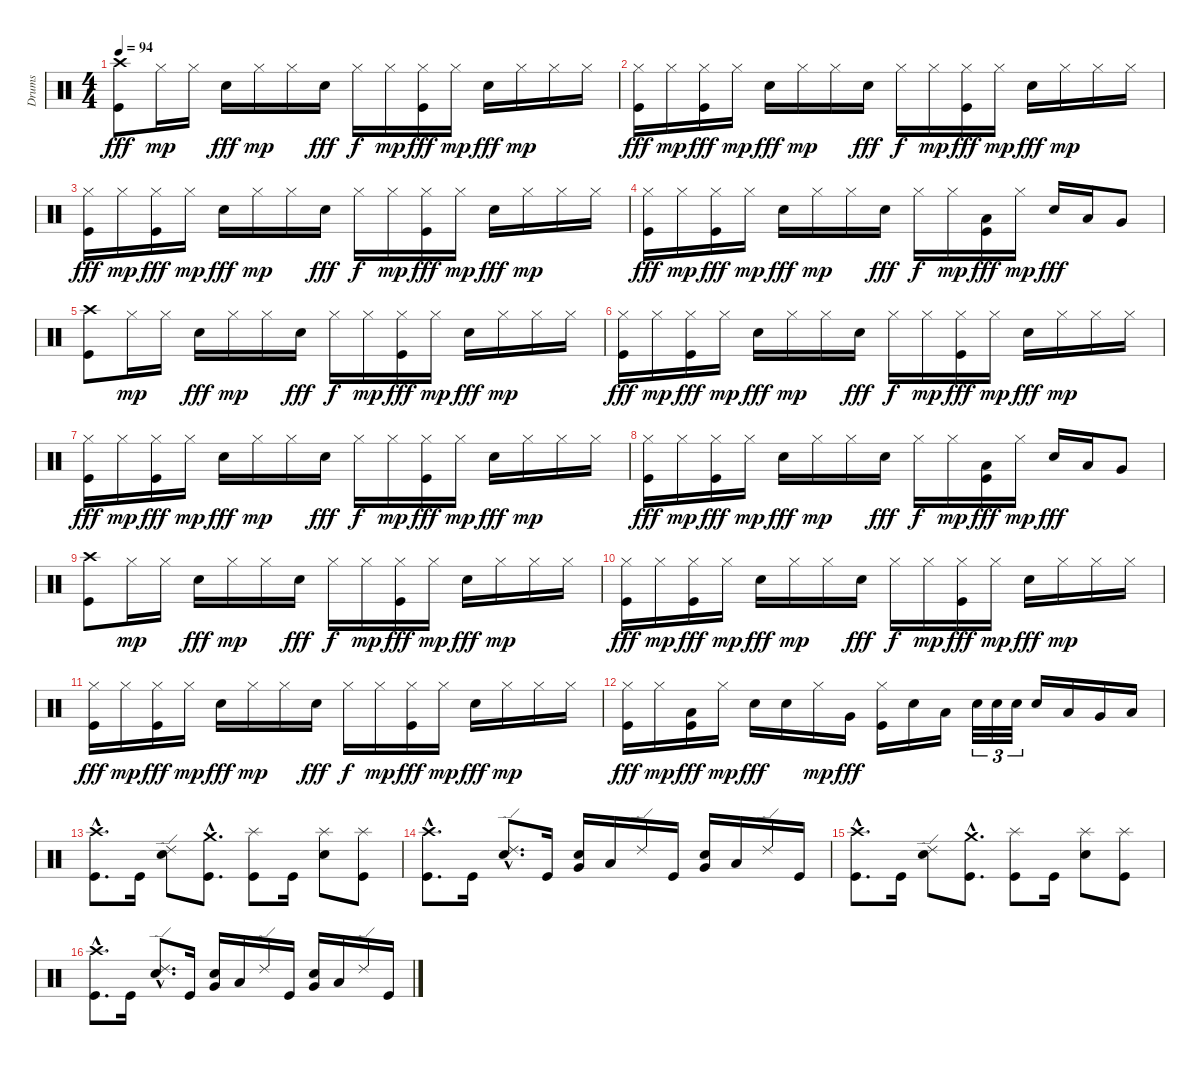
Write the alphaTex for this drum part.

\track ("Drums" "Drums") {instrument percussion}
\staff {score}
\articulation defaults
\ts (4 4)
\tempo 94
\clef neutral
\ks c
("Crash high (hit)" "Kick (hit)").8{dy fff} "Hi-Hat (closed)".16{dy mp} "Hi-Hat (closed)".16 "Snare (hit) 2".16{dy fff} "Hi-Hat (closed)".16{dy mp} "Hi-Hat (closed)".16 "Snare (hit) 2".16{dy fff} "Hi-Hat (closed)".16{dy f} "Hi-Hat (closed)".16{dy mp} ("Hi-Hat (closed)" "Kick (hit)").16{dy fff} "Hi-Hat (closed)".16{dy mp} "Snare (hit) 2".16{dy fff} "Hi-Hat (closed)".16{dy mp} "Hi-Hat (closed)".16 "Hi-Hat (closed)".16 |
("Hi-Hat (closed)" "Kick (hit)").16{dy fff} "Hi-Hat (closed)".16{dy mp} ("Hi-Hat (closed)" "Kick (hit)").16{dy fff} "Hi-Hat (closed)".16{dy mp} "Snare (hit) 2".16{dy fff} "Hi-Hat (closed)".16{dy mp} "Hi-Hat (closed)".16 "Snare (hit) 2".16{dy fff} "Hi-Hat (closed)".16{dy f} "Hi-Hat (closed)".16{dy mp} ("Hi-Hat (closed)" "Kick (hit)").16{dy fff} "Hi-Hat (closed)".16{dy mp} "Snare (hit) 2".16{dy fff} "Hi-Hat (closed)".16{dy mp} "Hi-Hat (closed)".16 "Hi-Hat (closed)".16 |
("Hi-Hat (closed)" "Kick (hit)").16{dy fff} "Hi-Hat (closed)".16{dy mp} ("Hi-Hat (closed)" "Kick (hit)").16{dy fff} "Hi-Hat (closed)".16{dy mp} "Snare (hit) 2".16{dy fff} "Hi-Hat (closed)".16{dy mp} "Hi-Hat (closed)".16 "Snare (hit) 2".16{dy fff} "Hi-Hat (closed)".16{dy f} "Hi-Hat (closed)".16{dy mp} ("Hi-Hat (closed)" "Kick (hit)").16{dy fff} "Hi-Hat (closed)".16{dy mp} "Snare (hit) 2".16{dy fff} "Hi-Hat (closed)".16{dy mp} "Hi-Hat (closed)".16 "Hi-Hat (closed)".16 |
("Hi-Hat (closed)" "Kick (hit)").16{dy fff} "Hi-Hat (closed)".16{dy mp} ("Hi-Hat (closed)" "Kick (hit)").16{dy fff} "Hi-Hat (closed)".16{dy mp} "Snare (hit) 2".16{dy fff} "Hi-Hat (closed)".16{dy mp} "Hi-Hat (closed)".16 "Snare (hit) 2".16{dy fff} "Hi-Hat (closed)".16{dy f} "Hi-Hat (closed)".16{dy mp} ("Low Tom (hit)" "Kick (hit)").16{dy fff} "Hi-Hat (closed)".16{dy mp} "Snare (hit) 2".16{dy fff} "Low Tom (hit)".16 "Very Low Tom (hit)".8 |
("Crash high (hit)" "Kick (hit)").8 "Hi-Hat (closed)".16{dy mp} "Hi-Hat (closed)".16 "Snare (hit) 2".16{dy fff} "Hi-Hat (closed)".16{dy mp} "Hi-Hat (closed)".16 "Snare (hit) 2".16{dy fff} "Hi-Hat (closed)".16{dy f} "Hi-Hat (closed)".16{dy mp} ("Hi-Hat (closed)" "Kick (hit)").16{dy fff} "Hi-Hat (closed)".16{dy mp} "Snare (hit) 2".16{dy fff} "Hi-Hat (closed)".16{dy mp} "Hi-Hat (closed)".16 "Hi-Hat (closed)".16 |
("Hi-Hat (closed)" "Kick (hit)").16{dy fff} "Hi-Hat (closed)".16{dy mp} ("Hi-Hat (closed)" "Kick (hit)").16{dy fff} "Hi-Hat (closed)".16{dy mp} "Snare (hit) 2".16{dy fff} "Hi-Hat (closed)".16{dy mp} "Hi-Hat (closed)".16 "Snare (hit) 2".16{dy fff} "Hi-Hat (closed)".16{dy f} "Hi-Hat (closed)".16{dy mp} ("Hi-Hat (closed)" "Kick (hit)").16{dy fff} "Hi-Hat (closed)".16{dy mp} "Snare (hit) 2".16{dy fff} "Hi-Hat (closed)".16{dy mp} "Hi-Hat (closed)".16 "Hi-Hat (closed)".16 |
("Hi-Hat (closed)" "Kick (hit)").16{dy fff} "Hi-Hat (closed)".16{dy mp} ("Hi-Hat (closed)" "Kick (hit)").16{dy fff} "Hi-Hat (closed)".16{dy mp} "Snare (hit) 2".16{dy fff} "Hi-Hat (closed)".16{dy mp} "Hi-Hat (closed)".16 "Snare (hit) 2".16{dy fff} "Hi-Hat (closed)".16{dy f} "Hi-Hat (closed)".16{dy mp} ("Hi-Hat (closed)" "Kick (hit)").16{dy fff} "Hi-Hat (closed)".16{dy mp} "Snare (hit) 2".16{dy fff} "Hi-Hat (closed)".16{dy mp} "Hi-Hat (closed)".16 "Hi-Hat (closed)".16 |
("Hi-Hat (closed)" "Kick (hit)").16{dy fff} "Hi-Hat (closed)".16{dy mp} ("Hi-Hat (closed)" "Kick (hit)").16{dy fff} "Hi-Hat (closed)".16{dy mp} "Snare (hit) 2".16{dy fff} "Hi-Hat (closed)".16{dy mp} "Hi-Hat (closed)".16 "Snare (hit) 2".16{dy fff} "Hi-Hat (closed)".16{dy f} "Hi-Hat (closed)".16{dy mp} ("Low Tom (hit)" "Kick (hit)").16{dy fff} "Hi-Hat (closed)".16{dy mp} "Snare (hit) 2".16{dy fff} "Low Tom (hit)".16 "Very Low Tom (hit)".8 |
("Crash high (hit)" "Kick (hit)").8 "Hi-Hat (closed)".16{dy mp} "Hi-Hat (closed)".16 "Snare (hit) 2".16{dy fff} "Hi-Hat (closed)".16{dy mp} "Hi-Hat (closed)".16 "Snare (hit) 2".16{dy fff} "Hi-Hat (closed)".16{dy f} "Hi-Hat (closed)".16{dy mp} ("Hi-Hat (closed)" "Kick (hit)").16{dy fff} "Hi-Hat (closed)".16{dy mp} "Snare (hit) 2".16{dy fff} "Hi-Hat (closed)".16{dy mp} "Hi-Hat (closed)".16 "Hi-Hat (closed)".16 |
("Hi-Hat (closed)" "Kick (hit)").16{dy fff} "Hi-Hat (closed)".16{dy mp} ("Hi-Hat (closed)" "Kick (hit)").16{dy fff} "Hi-Hat (closed)".16{dy mp} "Snare (hit) 2".16{dy fff} "Hi-Hat (closed)".16{dy mp} "Hi-Hat (closed)".16 "Snare (hit) 2".16{dy fff} "Hi-Hat (closed)".16{dy f} "Hi-Hat (closed)".16{dy mp} ("Hi-Hat (closed)" "Kick (hit)").16{dy fff} "Hi-Hat (closed)".16{dy mp} "Snare (hit) 2".16{dy fff} "Hi-Hat (closed)".16{dy mp} "Hi-Hat (closed)".16 "Hi-Hat (closed)".16 |
("Hi-Hat (closed)" "Kick (hit)").16{dy fff} "Hi-Hat (closed)".16{dy mp} ("Hi-Hat (closed)" "Kick (hit)").16{dy fff} "Hi-Hat (closed)".16{dy mp} "Snare (hit) 2".16{dy fff} "Hi-Hat (closed)".16{dy mp} "Hi-Hat (closed)".16 "Snare (hit) 2".16{dy fff} "Hi-Hat (closed)".16{dy f} "Hi-Hat (closed)".16{dy mp} ("Hi-Hat (closed)" "Kick (hit)").16{dy fff} "Hi-Hat (closed)".16{dy mp} "Snare (hit) 2".16{dy fff} "Hi-Hat (closed)".16{dy mp} "Hi-Hat (closed)".16 "Hi-Hat (closed)".16 |
("Hi-Hat (closed)" "Kick (hit)").16{dy fff} "Hi-Hat (closed)".16{dy mp} ("Low Tom (hit)" "Kick (hit)").16{dy fff} "Hi-Hat (closed)".16{dy mp} "Snare (hit) 2".16{dy fff} "Snare (hit) 2".16 "Hi-Hat (closed)".16{dy mp} "Very Low Tom (hit)".16{dy fff} ("Hi-Hat (closed)" "Kick (hit)").16 "Snare (hit) 2".16 "Low Tom (hit)".16 "Snare (hit) 2".32{tu (3 2)} "Snare (hit) 2".32{tu (3 2)} "Snare (hit) 2".32{tu (3 2)} "Snare (hit) 2".16 "Low Tom (hit)".16 "Very Low Tom (hit)".16 "Low Floor Tom (hit)".16 |
("Crash high (hit)"{hac} "Kick (hit)"{hac}).8{d} "Kick (hit)".16 ("Ride (edge) 2" "Snare (hit) 2").8 ("Crash medium (hit)"{hac} "Kick (hit)"{hac}).8{d} ("Splash (hit)" "Kick (hit)").8 "Kick (hit)".16 ("Splash (hit)" "Snare (hit) 2").8 ("Splash (hit)" "Kick (hit)").8 |
("Crash high (hit)"{hac} "Kick (hit)"{hac}).8{d} "Kick (hit)".16 ("Ride (edge) 2"{hac} "Snare (hit) 2"{hac}).8{d} "Kick (hit)".16 ("Very Low Tom (hit)" "Snare (hit) 2").16 "Low Floor Tom (hit)".16 "Ride (edge) 2".16 "Kick (hit)".16 ("Very Low Tom (hit)" "Snare (hit) 2").16 "Low Floor Tom (hit)".16 "Ride (edge) 2".16 "Kick (hit)".16 |
("Crash high (hit)"{hac} "Kick (hit)"{hac}).8{d} "Kick (hit)".16 ("Ride (edge) 2" "Snare (hit) 2").8 ("Crash medium (hit)"{hac} "Kick (hit)"{hac}).8{d} ("Splash (hit)" "Kick (hit)").8 "Kick (hit)".16 ("Splash (hit)" "Snare (hit) 2").8 ("Splash (hit)" "Kick (hit)").8 |
("Crash high (hit)"{hac} "Kick (hit)"{hac}).8{d} "Kick (hit)".16 ("Ride (edge) 2"{hac} "Snare (hit) 2"{hac}).8{d} "Kick (hit)".16 ("Very Low Tom (hit)" "Snare (hit) 2").16 "Low Floor Tom (hit)".16 "Ride (edge) 2".16 "Kick (hit)".16 ("Very Low Tom (hit)" "Snare (hit) 2").16 "Low Floor Tom (hit)".16 "Ride (edge) 2".16 "Kick (hit)".16
